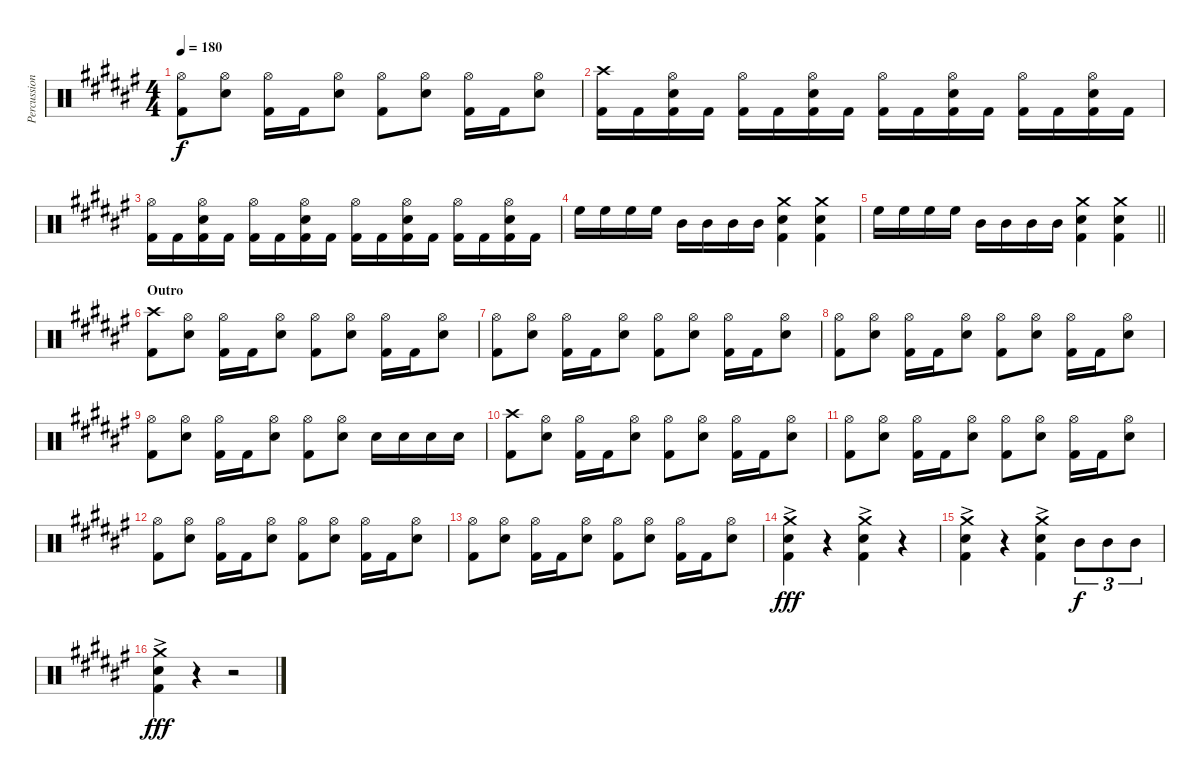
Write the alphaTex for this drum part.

\track ("Percussion" "Percussion") {instrument percussion}
\staff {score}
\articulation defaults
\ts (4 4)
\tempo 180
\clef neutral
\ks f#
("Hi-Hat (open)" "Kick (hit) 2").8{dy f} ("Hi-Hat (open)" "Snare (hit) 2").8 ("Hi-Hat (open)" "Kick (hit) 2").16 "Kick (hit) 2".16 ("Hi-Hat (open)" "Snare (hit) 2").8 ("Hi-Hat (open)" "Kick (hit) 2").8 ("Hi-Hat (open)" "Snare (hit) 2").8 ("Hi-Hat (open)" "Kick (hit) 2").16 "Kick (hit) 2".16 ("Hi-Hat (open)" "Snare (hit) 2").8 |
("Crash high (hit)" "Kick (hit) 2").16 "Kick (hit) 2".16 ("Hi-Hat (open)" "Snare (hit) 2" "Kick (hit) 2").16 "Kick (hit) 2".16 ("Hi-Hat (open)" "Kick (hit) 2").16 "Kick (hit) 2".16 ("Hi-Hat (open)" "Snare (hit) 2" "Kick (hit) 2").16 "Kick (hit) 2".16 ("Hi-Hat (open)" "Kick (hit) 2").16 "Kick (hit) 2".16 ("Hi-Hat (open)" "Snare (hit) 2" "Kick (hit) 2").16 "Kick (hit) 2".16 ("Hi-Hat (open)" "Kick (hit) 2").16 "Kick (hit) 2".16 ("Hi-Hat (open)" "Snare (hit) 2" "Kick (hit) 2").16 "Kick (hit) 2".16 |
("Hi-Hat (open)" "Kick (hit) 2").16 "Kick (hit) 2".16 ("Hi-Hat (open)" "Snare (hit) 2" "Kick (hit) 2").16 "Kick (hit) 2".16 ("Hi-Hat (open)" "Kick (hit) 2").16 "Kick (hit) 2".16 ("Hi-Hat (open)" "Snare (hit) 2" "Kick (hit) 2").16 "Kick (hit) 2".16 ("Hi-Hat (open)" "Kick (hit) 2").16 "Kick (hit) 2".16 ("Hi-Hat (open)" "Snare (hit) 2" "Kick (hit) 2").16 "Kick (hit) 2".16 ("Hi-Hat (open)" "Kick (hit) 2").16 "Kick (hit) 2".16 ("Hi-Hat (open)" "Snare (hit) 2" "Kick (hit) 2").16 "Kick (hit) 2".16 |
"High Floor Tom (hit)".16 "High Floor Tom (hit)".16 "High Floor Tom (hit)".16 "High Floor Tom (hit)".16 "Mid Tom (hit)".16 "Mid Tom (hit)".16 "Mid Tom (hit)".16 "Mid Tom (hit)".16 ("Crash medium (hit)" "Snare (hit) 2" "Kick (hit) 2").4 ("Crash medium (hit)" "Snare (hit) 2" "Kick (hit) 2").4 |
\barLineRight lightlight "High Floor Tom (hit)".16 "High Floor Tom (hit)".16 "High Floor Tom (hit)".16 "High Floor Tom (hit)".16 "Mid Tom (hit)".16 "Mid Tom (hit)".16 "Mid Tom (hit)".16 "Mid Tom (hit)".16
("Crash medium (hit)" "Snare (hit) 2" "Kick (hit) 2").4 ("Crash medium (hit)" "Snare (hit) 2" "Kick (hit) 2").4 |
\section ("" "Outro")
("Crash high (hit)" "Kick (hit) 2").8 ("Hi-Hat (open)" "Snare (hit) 2").8 ("Hi-Hat (open)" "Kick (hit) 2").16 "Kick (hit) 2".16 ("Hi-Hat (open)" "Snare (hit) 2").8 ("Hi-Hat (open)" "Kick (hit) 2").8 ("Hi-Hat (open)" "Snare (hit) 2").8 ("Hi-Hat (open)" "Kick (hit) 2").16 "Kick (hit) 2".16 ("Hi-Hat (open)" "Snare (hit) 2").8 |
("Hi-Hat (open)" "Kick (hit) 2").8 ("Hi-Hat (open)" "Snare (hit) 2").8 ("Hi-Hat (open)" "Kick (hit) 2").16 "Kick (hit) 2".16 ("Hi-Hat (open)" "Snare (hit) 2").8 ("Hi-Hat (open)" "Kick (hit) 2").8 ("Hi-Hat (open)" "Snare (hit) 2").8 ("Hi-Hat (open)" "Kick (hit) 2").16 "Kick (hit) 2".16 ("Hi-Hat (open)" "Snare (hit) 2").8 |
("Hi-Hat (open)" "Kick (hit) 2").8 ("Hi-Hat (open)" "Snare (hit) 2").8 ("Hi-Hat (open)" "Kick (hit) 2").16 "Kick (hit) 2".16 ("Hi-Hat (open)" "Snare (hit) 2").8 ("Hi-Hat (open)" "Kick (hit) 2").8 ("Hi-Hat (open)" "Snare (hit) 2").8 ("Hi-Hat (open)" "Kick (hit) 2").16 "Kick (hit) 2".16 ("Hi-Hat (open)" "Snare (hit) 2").8 |
("Hi-Hat (open)" "Kick (hit) 2").8 ("Hi-Hat (open)" "Snare (hit) 2").8 ("Hi-Hat (open)" "Kick (hit) 2").16 "Kick (hit) 2".16 ("Hi-Hat (open)" "Snare (hit) 2").8 ("Hi-Hat (open)" "Kick (hit) 2").8 ("Hi-Hat (open)" "Snare (hit) 2").8 "Snare (hit) 2".16 "Snare (hit) 2".16 "Snare (hit) 2".16 "Snare (hit) 2".16 |
("Crash high (hit)" "Kick (hit) 2").8 ("Hi-Hat (open)" "Snare (hit) 2").8 ("Hi-Hat (open)" "Kick (hit) 2").16 "Kick (hit) 2".16 ("Hi-Hat (open)" "Snare (hit) 2").8 ("Hi-Hat (open)" "Kick (hit) 2").8 ("Hi-Hat (open)" "Snare (hit) 2").8 ("Hi-Hat (open)" "Kick (hit) 2").16 "Kick (hit) 2".16 ("Hi-Hat (open)" "Snare (hit) 2").8 |
("Hi-Hat (open)" "Kick (hit) 2").8 ("Hi-Hat (open)" "Snare (hit) 2").8 ("Hi-Hat (open)" "Kick (hit) 2").16 "Kick (hit) 2".16 ("Hi-Hat (open)" "Snare (hit) 2").8 ("Hi-Hat (open)" "Kick (hit) 2").8 ("Hi-Hat (open)" "Snare (hit) 2").8 ("Hi-Hat (open)" "Kick (hit) 2").16 "Kick (hit) 2".16 ("Hi-Hat (open)" "Snare (hit) 2").8 |
("Hi-Hat (open)" "Kick (hit) 2").8 ("Hi-Hat (open)" "Snare (hit) 2").8 ("Hi-Hat (open)" "Kick (hit) 2").16 "Kick (hit) 2".16 ("Hi-Hat (open)" "Snare (hit) 2").8 ("Hi-Hat (open)" "Kick (hit) 2").8 ("Hi-Hat (open)" "Snare (hit) 2").8 ("Hi-Hat (open)" "Kick (hit) 2").16 "Kick (hit) 2".16 ("Hi-Hat (open)" "Snare (hit) 2").8 |
("Hi-Hat (open)" "Kick (hit) 2").8 ("Hi-Hat (open)" "Snare (hit) 2").8 ("Hi-Hat (open)" "Kick (hit) 2").16 "Kick (hit) 2".16 ("Hi-Hat (open)" "Snare (hit) 2").8 ("Hi-Hat (open)" "Kick (hit) 2").8 ("Hi-Hat (open)" "Snare (hit) 2").8 ("Hi-Hat (open)" "Kick (hit) 2").16 "Kick (hit) 2".16 ("Hi-Hat (open)" "Snare (hit) 2").8 |
("Crash medium (hit)"{ac} "Snare (hit) 2"{ac} "Kick (hit) 2"{ac}).4{dy fff} r.4 ("Crash medium (hit)"{ac} "Snare (hit) 2"{ac} "Kick (hit) 2"{ac}).4 r.4 |
("Crash medium (hit)"{ac} "Snare (hit) 2"{ac} "Kick (hit) 2"{ac}).4 r.4 ("Crash medium (hit)"{ac} "Snare (hit) 2"{ac} "Kick (hit) 2"{ac}).4 "Mid Tom (hit)".8{tu (3 2) dy f} "Mid Tom (hit)".8{tu (3 2)} "Mid Tom (hit)".8{tu (3 2)} |
("Crash medium (hit)"{ac} "Snare (hit) 2"{ac} "Kick (hit) 2"{ac}).4{dy fff} r.4 r.2
